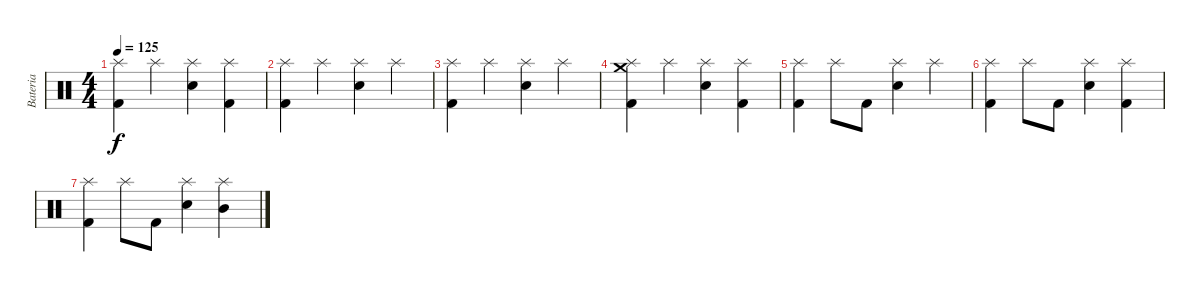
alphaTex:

\track ("Bateria" "Bateria") {instrument percussion}
\staff {score}
\articulation defaults
\ts (4 4)
\tempo 125
\clef neutral
\ks c
("Kick (hit) 2" "Splash (hit)").4{dy f} "Splash (hit)".4 ("Electric Snare (hit)" "Splash (hit)").4 ("Kick (hit) 2" "Splash (hit)").4 |
("Kick (hit) 2" "Splash (hit)").4 "Splash (hit)".4 ("Electric Snare (hit)" "Splash (hit)").4 "Splash (hit)".4 |
("Kick (hit) 2" "Splash (hit)").4 "Splash (hit)".4 ("Electric Snare (hit)" "Splash (hit)").4 "Splash (hit)".4 |
("Kick (hit) 2" "Splash (hit)" "Crash medium (hit)").4 "Splash (hit)".4 ("Electric Snare (hit)" "Splash (hit)").4 ("Kick (hit) 2" "Splash (hit)").4 |
("Kick (hit) 2" "Splash (hit)").4 "Splash (hit)".8 "Kick (hit) 2".8 ("Electric Snare (hit)" "Splash (hit)").4 "Splash (hit)".4 |
("Kick (hit) 2" "Splash (hit)").4 "Splash (hit)".8 "Kick (hit) 2".8 ("Electric Snare (hit)" "Splash (hit)").4 ("Kick (hit) 2" "Splash (hit)").4 |
("Kick (hit) 2" "Splash (hit)").4 "Splash (hit)".8 "Kick (hit) 2".8 ("Electric Snare (hit)" "Splash (hit)").4 ("Mid Tom (hit)" "Splash (hit)").4
